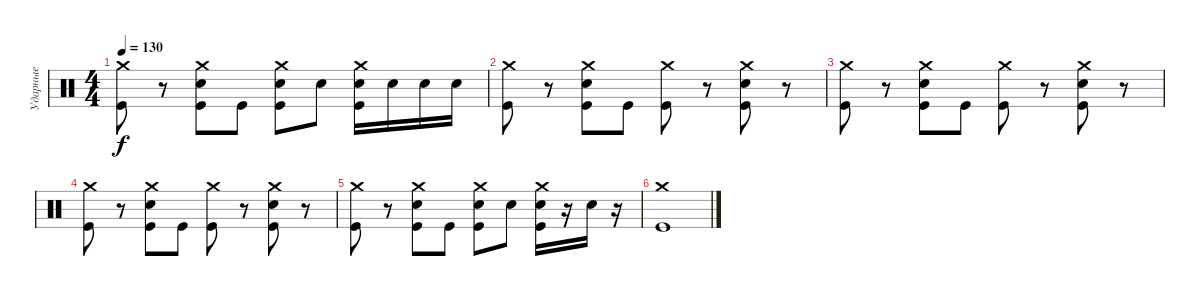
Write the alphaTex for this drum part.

\track ("Ударные" "Ударные") {instrument percussion}
\staff {score}
\articulation defaults
\ts (4 4)
\tempo 130
\clef neutral
\ks c
("Crash medium (hit)" "Kick (hit)").8{dy f} r.8 ("Crash medium (hit)" "Electric Snare (hit)" "Kick (hit)").8 "Kick (hit)".8 ("Crash medium (hit)" "Electric Snare (hit)" "Kick (hit)").8 "Electric Snare (hit)".8 ("Crash medium (hit)" "Electric Snare (hit)" "Kick (hit)").16 "Electric Snare (hit)".16 "Electric Snare (hit)".16 "Electric Snare (hit)".16 |
("Crash medium (hit)" "Kick (hit)").8 r.8 ("Crash medium (hit)" "Electric Snare (hit)" "Kick (hit)").8 "Kick (hit)".8 ("Crash medium (hit)" "Kick (hit)").8 r.8 ("Crash medium (hit)" "Electric Snare (hit)" "Kick (hit)").8 r.8 |
("Crash medium (hit)" "Kick (hit)").8 r.8 ("Crash medium (hit)" "Electric Snare (hit)" "Kick (hit)").8 "Kick (hit)".8 ("Crash medium (hit)" "Kick (hit)").8 r.8 ("Crash medium (hit)" "Electric Snare (hit)" "Kick (hit)").8 r.8 |
("Crash medium (hit)" "Kick (hit)").8 r.8 ("Crash medium (hit)" "Electric Snare (hit)" "Kick (hit)").8 "Kick (hit)".8 ("Crash medium (hit)" "Kick (hit)").8 r.8 ("Crash medium (hit)" "Electric Snare (hit)" "Kick (hit)").8 r.8 |
("Crash medium (hit)" "Kick (hit)").8 r.8 ("Crash medium (hit)" "Electric Snare (hit)" "Kick (hit)").8 "Kick (hit)".8 ("Crash medium (hit)" "Electric Snare (hit)" "Kick (hit)").8 "Electric Snare (hit)".8 ("Crash medium (hit)" "Electric Snare (hit)" "Kick (hit)").16 r.16 "Electric Snare (hit)".16 r.16 |
("Crash medium (hit)" "Kick (hit)").1
